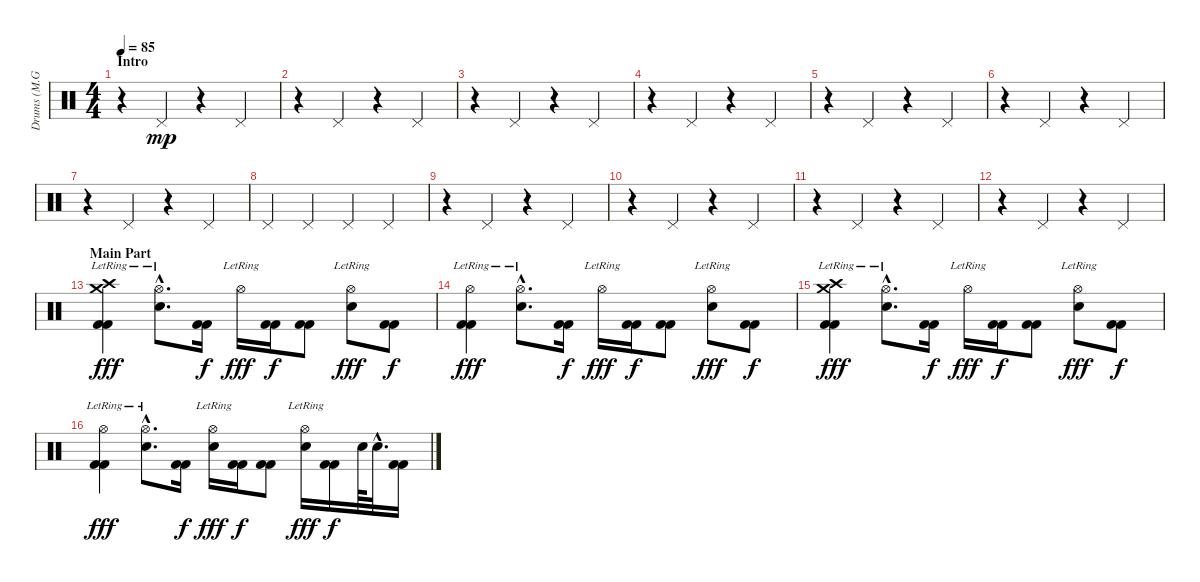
\track ("Drums (M.Grosskopf)" "Drums (M.G") {instrument percussion}
\staff {score}
\articulation defaults
\ts (4 4)
\section ("" "Intro")
\tempo 85
\clef neutral
\ks c
r.4{dy mp} "Pedal Hi-Hat (hit)".4 r.4 "Pedal Hi-Hat (hit)".4 |
r.4 "Pedal Hi-Hat (hit)".4 r.4 "Pedal Hi-Hat (hit)".4 |
r.4 "Pedal Hi-Hat (hit)".4 r.4 "Pedal Hi-Hat (hit)".4 |
r.4 "Pedal Hi-Hat (hit)".4 r.4 "Pedal Hi-Hat (hit)".4 |
r.4 "Pedal Hi-Hat (hit)".4 r.4 "Pedal Hi-Hat (hit)".4 |
r.4 "Pedal Hi-Hat (hit)".4 r.4 "Pedal Hi-Hat (hit)".4 |
r.4 "Pedal Hi-Hat (hit)".4 r.4 "Pedal Hi-Hat (hit)".4 |
"Pedal Hi-Hat (hit)".4 "Pedal Hi-Hat (hit)".4 "Pedal Hi-Hat (hit)".4 "Pedal Hi-Hat (hit)".4 |
r.4 "Pedal Hi-Hat (hit)".4 r.4 "Pedal Hi-Hat (hit)".4 |
r.4 "Pedal Hi-Hat (hit)".4 r.4 "Pedal Hi-Hat (hit)".4 |
r.4 "Pedal Hi-Hat (hit)".4 r.4 "Pedal Hi-Hat (hit)".4 |
r.4 "Pedal Hi-Hat (hit)".4 r.4 "Pedal Hi-Hat (hit)".4 |
\section ("" "Main Part")
("Crash high (hit)"{lr} "Crash medium (hit)"{lr} "Kick (hit) 2" "Kick (hit) 2").4{dy fff} ("Hi-Hat (open)"{hac lr} "Electric Snare (hit)"{hac}).8{d} ("Kick (hit) 2" "Kick (hit) 2").16{dy f} "Hi-Hat (open)"{lr}.16{dy fff} ("Kick (hit) 2" "Kick (hit) 2").16{dy f} ("Kick (hit) 2" "Kick (hit) 2").8 ("Hi-Hat (open)"{lr} "Electric Snare (hit)").8{dy fff} ("Kick (hit) 2" "Kick (hit) 2").8{dy f} |
("Hi-Hat (open)"{lr} "Kick (hit) 2" "Kick (hit) 2").4{dy fff} ("Hi-Hat (open)"{hac lr} "Electric Snare (hit)"{hac}).8{d} ("Kick (hit) 2" "Kick (hit) 2").16{dy f} "Hi-Hat (open)"{lr}.16{dy fff} ("Kick (hit) 2" "Kick (hit) 2").16{dy f} ("Kick (hit) 2" "Kick (hit) 2").8 ("Hi-Hat (open)"{lr} "Electric Snare (hit)").8{dy fff} ("Kick (hit) 2" "Kick (hit) 2").8{dy f} |
("Crash high (hit)"{lr} "Crash medium (hit)"{lr} "Kick (hit) 2" "Kick (hit) 2").4{dy fff} ("Hi-Hat (open)"{hac lr} "Electric Snare (hit)"{hac}).8{d} ("Kick (hit) 2" "Kick (hit) 2").16{dy f} "Hi-Hat (open)"{lr}.16{dy fff} ("Kick (hit) 2" "Kick (hit) 2").16{dy f} ("Kick (hit) 2" "Kick (hit) 2").8 ("Hi-Hat (open)"{lr} "Electric Snare (hit)").8{dy fff} ("Kick (hit) 2" "Kick (hit) 2").8{dy f} |
("Hi-Hat (open)"{lr} "Kick (hit) 2" "Kick (hit) 2").4{dy fff} ("Hi-Hat (open)"{hac lr} "Electric Snare (hit)"{hac}).8{d} ("Kick (hit) 2" "Kick (hit) 2").16{dy f} ("Hi-Hat (open)"{lr} "Electric Snare (hit)").16{dy fff} ("Kick (hit) 2" "Kick (hit) 2").16{dy f} ("Kick (hit) 2" "Kick (hit) 2").8 ("Hi-Hat (open)"{lr} "Electric Snare (hit)").16{dy fff} ("Kick (hit) 2" "Kick (hit) 2").16{dy f} "Electric Snare (hit)".64 "Electric Snare (hit)"{hac}.32{d} ("Kick (hit) 2" "Kick (hit) 2").16
